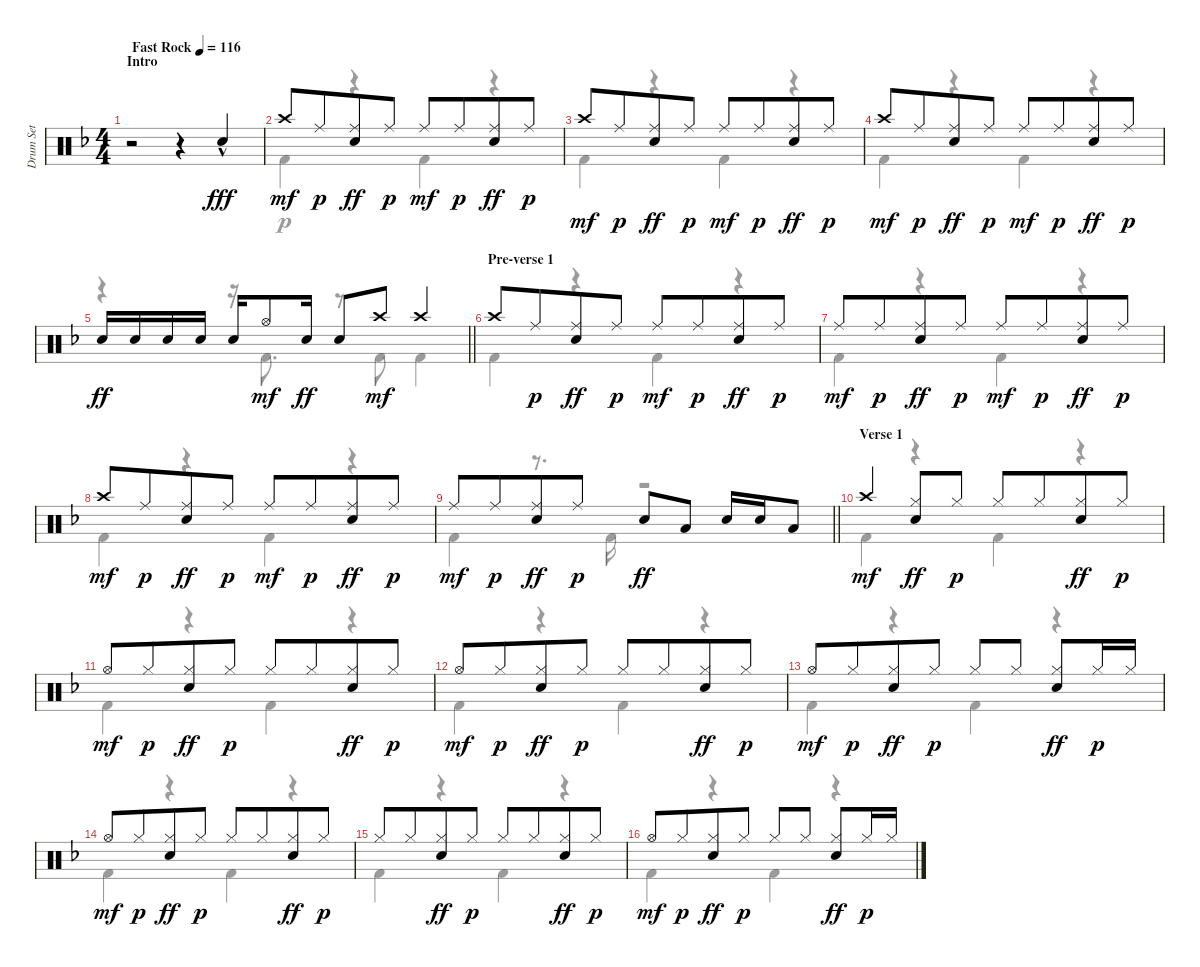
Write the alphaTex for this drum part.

\track ("Drum Set" "Drum Set") {instrument percussion}
\staff {score}
\articulation defaults
\voice
\ts (4 4)
\section ("" "Intro")
\tempo (116 "Fast Rock")
\clef neutral
\ks dminor
r.2{dy fff} r.4 "Electric Snare (hit)"{hac}.4{beam Up} |
\ks f "Crash high (hit)".8{dy mf} "Ride (middle)".8{dy p beam merge}
("Ride (middle)" "Electric Snare (hit)").8{dy ff} "Ride (middle)".8{dy p} "Ride (middle)".8{dy mf} "Ride (middle)".8{dy p beam merge} ("Ride (middle)" "Electric Snare (hit)").8{dy ff} "Ride (middle)".8{dy p} |
"Crash high (hit)".8{dy mf} "Ride (middle)".8{dy p beam merge} ("Ride (middle)" "Electric Snare (hit)").8{dy ff} "Ride (middle)".8{dy p} "Ride (middle)".8{dy mf} "Ride (middle)".8{dy p beam merge} ("Ride (middle)" "Electric Snare (hit)").8{dy ff} "Ride (middle)".8{dy p} |
"Crash high (hit)".8{dy mf} "Ride (middle)".8{dy p beam merge} ("Ride (middle)" "Electric Snare (hit)").8{dy ff} "Ride (middle)".8{dy p} "Ride (middle)".8{dy mf} "Ride (middle)".8{dy p beam merge} ("Ride (middle)" "Electric Snare (hit)").8{dy ff} "Ride (middle)".8{dy p} |
\barLineRight lightlight "Electric Snare (hit)".16{dy ff} "Electric Snare (hit)".16 "Electric Snare (hit)".16 "Electric Snare (hit)".16 "Electric Snare (hit)".16 "Hi-Hat (open)".8{dy mf} "Electric Snare (hit)".16{dy ff} "Electric Snare (hit)".8 "Crash high (hit)".8{dy mf} "Crash high (hit)".4
|
\section ("" "Pre-verse 1")
"Crash high (hit)".8 "Ride (middle)".8{dy p beam merge} ("Ride (middle)" "Electric Snare (hit)").8{dy ff} "Ride (middle)".8{dy p} "Ride (middle)".8{dy mf} "Ride (middle)".8{dy p beam merge} ("Ride (middle)" "Electric Snare (hit)").8{dy ff} "Ride (middle)".8{dy p} |
"Ride (middle)".8{dy mf} "Ride (middle)".8{dy p beam merge} ("Ride (middle)" "Electric Snare (hit)").8{dy ff} "Ride (middle)".8{dy p} "Ride (middle)".8{dy mf} "Ride (middle)".8{dy p beam merge} ("Ride (middle)" "Electric Snare (hit)").8{dy ff} "Ride (middle)".8{dy p} |
"Crash high (hit)".8{dy mf} "Ride (middle)".8{dy p beam merge} ("Ride (middle)" "Electric Snare (hit)").8{dy ff} "Ride (middle)".8{dy p} "Ride (middle)".8{dy mf} "Ride (middle)".8{dy p beam merge} ("Ride (middle)" "Electric Snare (hit)").8{dy ff} "Ride (middle)".8{dy p} |
\barLineRight lightlight "Ride (middle)".8{dy mf} "Ride (middle)".8{dy p beam merge}
("Ride (middle)" "Electric Snare (hit)").8{dy ff} "Ride (middle)".8{dy p} "Electric Snare (hit)".8{dy ff} "Low Tom (hit)".8 "Electric Snare (hit)".16 "Electric Snare (hit)".16 "Low Tom (hit)".8 |
\section ("" "Verse 1")
"Crash high (hit)".4{dy mf} ("Hi-Hat (closed)" "Electric Snare (hit)").8{dy ff} "Hi-Hat (closed)".8{dy p} "Hi-Hat (closed)".8 "Hi-Hat (closed)".8{beam merge} ("Hi-Hat (closed)" "Electric Snare (hit)").8{dy ff} "Hi-Hat (closed)".8{dy p} |
"Hi-Hat (open)".8{dy mf} "Hi-Hat (closed)".8{dy p beam merge} ("Hi-Hat (closed)" "Electric Snare (hit)").8{dy ff} "Hi-Hat (closed)".8{dy p} "Hi-Hat (closed)".8 "Hi-Hat (closed)".8{beam merge} ("Hi-Hat (closed)" "Electric Snare (hit)").8{dy ff} "Hi-Hat (closed)".8{dy p} |
"Hi-Hat (open)".8{dy mf} "Hi-Hat (closed)".8{dy p beam merge} ("Hi-Hat (closed)" "Electric Snare (hit)").8{dy ff} "Hi-Hat (closed)".8{dy p} "Hi-Hat (closed)".8 "Hi-Hat (closed)".8{beam merge} ("Hi-Hat (closed)" "Electric Snare (hit)").8{dy ff} "Hi-Hat (closed)".8{dy p} |
"Hi-Hat (open)".8{dy mf} "Hi-Hat (closed)".8{dy p beam merge} ("Hi-Hat (closed)" "Electric Snare (hit)").8{dy ff} "Hi-Hat (closed)".8{dy p} "Hi-Hat (closed)".8 "Hi-Hat (closed)".8{beam split} ("Hi-Hat (closed)" "Electric Snare (hit)").8{dy ff} "Hi-Hat (closed)".16{dy p} "Hi-Hat (closed)".16 |
"Hi-Hat (open)".8{dy mf} "Hi-Hat (closed)".8{dy p beam merge} ("Hi-Hat (closed)" "Electric Snare (hit)").8{dy ff} "Hi-Hat (closed)".8{dy p} "Hi-Hat (closed)".8 "Hi-Hat (closed)".8{beam merge} ("Hi-Hat (closed)" "Electric Snare (hit)").8{dy ff} "Hi-Hat (closed)".8{dy p} |
"Hi-Hat (closed)".8 "Hi-Hat (closed)".8{beam merge} ("Hi-Hat (closed)" "Electric Snare (hit)").8{dy ff} "Hi-Hat (closed)".8{dy p} "Hi-Hat (closed)".8 "Hi-Hat (closed)".8{beam merge} ("Hi-Hat (closed)" "Electric Snare (hit)").8{dy ff} "Hi-Hat (closed)".8{dy p} |
"Hi-Hat (open)".8{dy mf} "Hi-Hat (closed)".8{dy p beam merge} ("Hi-Hat (closed)" "Electric Snare (hit)").8{dy ff} "Hi-Hat (closed)".8{dy p} "Hi-Hat (closed)".8 "Hi-Hat (closed)".8{beam split} ("Hi-Hat (closed)" "Electric Snare (hit)").8{dy ff} "Hi-Hat (closed)".16{dy p} "Hi-Hat (closed)".16
\voice
\clef neutral
\ottava regular
\simile none
\ks dminor
|
\ks f "Kick (hit) 2".4
r.4 "Kick (hit) 2".4 r.4 |
"Kick (hit) 2".4 r.4 "Kick (hit) 2".4 r.4 |
"Kick (hit) 2".4 r.4 "Kick (hit) 2".4 r.4 |
\barLineRight lightlight
r.4 r.16 "Kick (hit) 2".8{d} r.8 "Kick (hit) 2".8 "Kick (hit) 2".4 |
"Kick (hit) 2".4 r.4 "Kick (hit) 2".4 r.4 |
"Kick (hit) 2".4 r.4 "Kick (hit) 2".4 r.4 |
"Kick (hit) 2".4 r.4 "Kick (hit) 2".4 r.4 |
\barLineRight lightlight "Kick (hit) 2".4
r.8{d} "Kick (hit) 2".16 r.2 |
"Kick (hit) 2".4 r.4 "Kick (hit) 2".4 r.4 |
"Kick (hit) 2".4 r.4 "Kick (hit) 2".4 r.4 |
"Kick (hit) 2".4 r.4 "Kick (hit) 2".4 r.4 |
"Kick (hit) 2".4 r.4 "Kick (hit) 2".4 r.4 |
"Kick (hit) 2".4 r.4 "Kick (hit) 2".4 r.4 |
"Kick (hit) 2".4 r.4 "Kick (hit) 2".4 r.4 |
"Kick (hit) 2".4 r.4 "Kick (hit) 2".4 r.4
